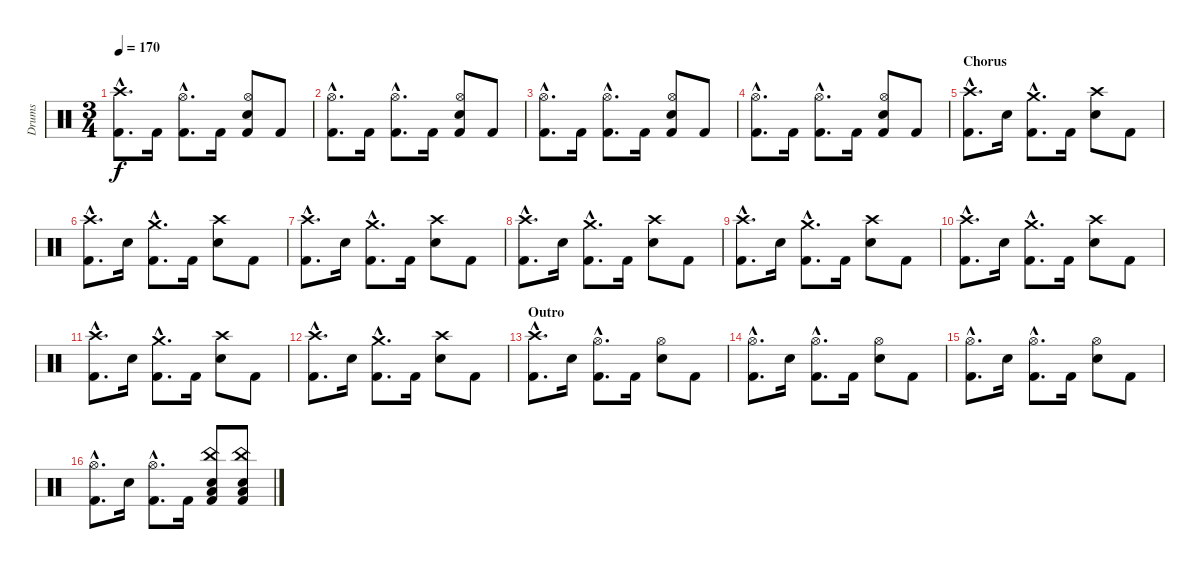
\track ("Drums" "Drums") {instrument percussion}
\staff {score}
\articulation defaults
\ts (3 4)
\tempo 170
\clef neutral
\ks c
("Crash high (hit)"{hac} "Kick (hit) 2"{hac}).8{d dy f} "Kick (hit) 2".16 ("Hi-Hat (open)"{hac} "Kick (hit) 2"{hac}).8{d} "Kick (hit) 2".16 ("Hi-Hat (open)" "Electric Snare (hit)" "Kick (hit) 2").8 "Kick (hit) 2".8 |
("Hi-Hat (open)"{hac} "Kick (hit) 2"{hac}).8{d} "Kick (hit) 2".16 ("Hi-Hat (open)"{hac} "Kick (hit) 2"{hac}).8{d} "Kick (hit) 2".16 ("Hi-Hat (open)" "Electric Snare (hit)" "Kick (hit) 2").8 "Kick (hit) 2".8 |
("Hi-Hat (open)"{hac} "Kick (hit) 2"{hac}).8{d} "Kick (hit) 2".16 ("Hi-Hat (open)"{hac} "Kick (hit) 2"{hac}).8{d} "Kick (hit) 2".16 ("Hi-Hat (open)" "Electric Snare (hit)" "Kick (hit) 2").8 "Kick (hit) 2".8 |
("Hi-Hat (open)"{hac} "Kick (hit) 2"{hac}).8{d} "Kick (hit) 2".16 ("Hi-Hat (open)"{hac} "Kick (hit) 2"{hac}).8{d} "Kick (hit) 2".16 ("Hi-Hat (open)" "Electric Snare (hit)" "Kick (hit) 2").8 "Kick (hit) 2".8 |
\section ("" "Chorus")
("Crash high (hit)"{hac} "Kick (hit) 2"{hac}).8{d} "Electric Snare (hit)".16 ("Crash medium (hit)"{hac} "Kick (hit) 2"{hac}).8{d} "Kick (hit) 2".16 ("Crash high (hit)" "Electric Snare (hit)").8 "Kick (hit) 2".8 |
("Crash high (hit)"{hac} "Kick (hit) 2"{hac}).8{d} "Electric Snare (hit)".16 ("Crash medium (hit)"{hac} "Kick (hit) 2"{hac}).8{d} "Kick (hit) 2".16 ("Crash high (hit)" "Electric Snare (hit)").8 "Kick (hit) 2".8 |
("Crash high (hit)"{hac} "Kick (hit) 2"{hac}).8{d} "Electric Snare (hit)".16 ("Crash medium (hit)"{hac} "Kick (hit) 2"{hac}).8{d} "Kick (hit) 2".16 ("Crash high (hit)" "Electric Snare (hit)").8 "Kick (hit) 2".8 |
("Crash high (hit)"{hac} "Kick (hit) 2"{hac}).8{d} "Electric Snare (hit)".16 ("Crash medium (hit)"{hac} "Kick (hit) 2"{hac}).8{d} "Kick (hit) 2".16 ("Crash high (hit)" "Electric Snare (hit)").8 "Kick (hit) 2".8 |
("Crash high (hit)"{hac} "Kick (hit) 2"{hac}).8{d} "Electric Snare (hit)".16 ("Crash medium (hit)"{hac} "Kick (hit) 2"{hac}).8{d} "Kick (hit) 2".16 ("Crash high (hit)" "Electric Snare (hit)").8 "Kick (hit) 2".8 |
("Crash high (hit)"{hac} "Kick (hit) 2"{hac}).8{d} "Electric Snare (hit)".16 ("Crash medium (hit)"{hac} "Kick (hit) 2"{hac}).8{d} "Kick (hit) 2".16 ("Crash high (hit)" "Electric Snare (hit)").8 "Kick (hit) 2".8 |
("Crash high (hit)"{hac} "Kick (hit) 2"{hac}).8{d} "Electric Snare (hit)".16 ("Crash medium (hit)"{hac} "Kick (hit) 2"{hac}).8{d} "Kick (hit) 2".16 ("Crash high (hit)" "Electric Snare (hit)").8 "Kick (hit) 2".8 |
("Crash high (hit)"{hac} "Kick (hit) 2"{hac}).8{d} "Electric Snare (hit)".16 ("Crash medium (hit)"{hac} "Kick (hit) 2"{hac}).8{d} "Kick (hit) 2".16 ("Crash high (hit)" "Electric Snare (hit)").8 "Kick (hit) 2".8 |
\section ("" "Outro")
("Crash high (hit)"{hac} "Kick (hit) 2"{hac}).8{d} "Electric Snare (hit)".16 ("Hi-Hat (open)"{hac} "Kick (hit) 2"{hac}).8{d} "Kick (hit) 2".16 ("Hi-Hat (open)" "Electric Snare (hit)").8 "Kick (hit) 2".8 |
("Hi-Hat (open)"{hac} "Kick (hit) 2"{hac}).8{d} "Electric Snare (hit)".16 ("Hi-Hat (open)"{hac} "Kick (hit) 2"{hac}).8{d} "Kick (hit) 2".16 ("Hi-Hat (open)" "Electric Snare (hit)").8 "Kick (hit) 2".8 |
("Hi-Hat (open)"{hac} "Kick (hit) 2"{hac}).8{d} "Electric Snare (hit)".16 ("Hi-Hat (open)"{hac} "Kick (hit) 2"{hac}).8{d} "Kick (hit) 2".16 ("Hi-Hat (open)" "Electric Snare (hit)").8 "Kick (hit) 2".8 |
("Hi-Hat (open)"{hac} "Kick (hit) 2"{hac}).8{d} "Electric Snare (hit)".16 ("Hi-Hat (open)"{hac} "Kick (hit) 2"{hac}).8{d} "Kick (hit) 2".16 ("China (hit)" "Electric Snare (hit)" "Low Floor Tom (hit)" "Kick (hit) 2").8 ("China (hit)" "Electric Snare (hit)" "Low Floor Tom (hit)" "Kick (hit) 2").8
